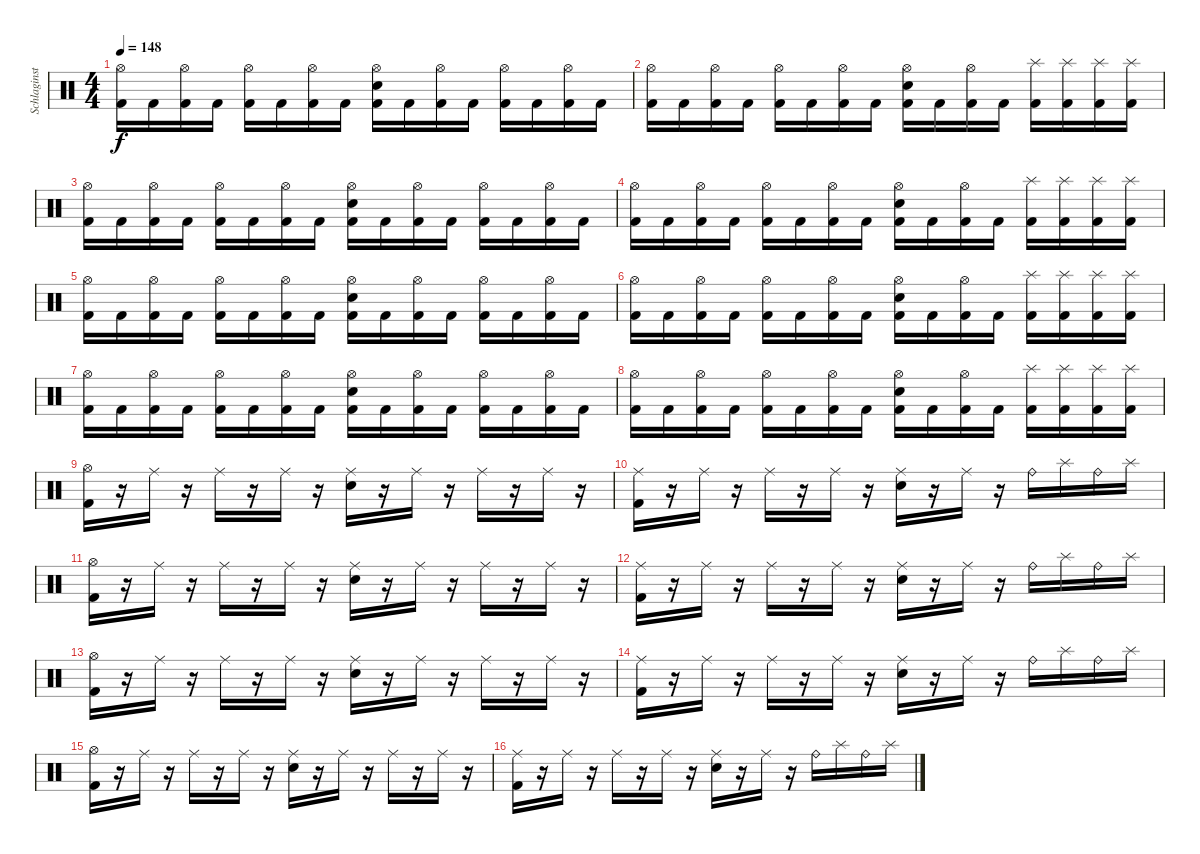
\track ("Schlaginstrumente - Auswahl" "Schlaginst") {instrument percussion}
\staff {score}
\articulation defaults
\ts (4 4)
\tempo 148
\clef neutral
\ks c
("Hi-Hat (open)" "Kick (hit) 2").16{dy f} "Kick (hit) 2".16 ("Hi-Hat (open)" "Kick (hit) 2").16 "Kick (hit) 2".16 ("Hi-Hat (open)" "Kick (hit) 2").16 "Kick (hit) 2".16 ("Hi-Hat (open)" "Kick (hit) 2").16 "Kick (hit) 2".16 ("Hi-Hat (open)" "Electric Snare (hit)" "Kick (hit) 2").16 "Kick (hit) 2".16 ("Hi-Hat (open)" "Kick (hit) 2").16 "Kick (hit) 2".16 ("Hi-Hat (open)" "Kick (hit) 2").16 "Kick (hit) 2".16 ("Hi-Hat (open)" "Kick (hit) 2").16 "Kick (hit) 2".16 |
("Hi-Hat (open)" "Kick (hit) 2").16 "Kick (hit) 2".16 ("Hi-Hat (open)" "Kick (hit) 2").16 "Kick (hit) 2".16 ("Hi-Hat (open)" "Kick (hit) 2").16 "Kick (hit) 2".16 ("Hi-Hat (open)" "Kick (hit) 2").16 "Kick (hit) 2".16 ("Hi-Hat (open)" "Electric Snare (hit)" "Kick (hit) 2").16 "Kick (hit) 2".16 ("Hi-Hat (open)" "Kick (hit) 2").16 "Kick (hit) 2".16 ("Splash (hit)" "Kick (hit) 2").16 ("Splash (hit)" "Kick (hit) 2").16 ("Splash (hit)" "Kick (hit) 2").16 ("Splash (hit)" "Kick (hit) 2").16 |
("Hi-Hat (open)" "Kick (hit) 2").16 "Kick (hit) 2".16 ("Hi-Hat (open)" "Kick (hit) 2").16 "Kick (hit) 2".16 ("Hi-Hat (open)" "Kick (hit) 2").16 "Kick (hit) 2".16 ("Hi-Hat (open)" "Kick (hit) 2").16 "Kick (hit) 2".16 ("Hi-Hat (open)" "Electric Snare (hit)" "Kick (hit) 2").16 "Kick (hit) 2".16 ("Hi-Hat (open)" "Kick (hit) 2").16 "Kick (hit) 2".16 ("Hi-Hat (open)" "Kick (hit) 2").16 "Kick (hit) 2".16 ("Hi-Hat (open)" "Kick (hit) 2").16 "Kick (hit) 2".16 |
("Hi-Hat (open)" "Kick (hit) 2").16 "Kick (hit) 2".16 ("Hi-Hat (open)" "Kick (hit) 2").16 "Kick (hit) 2".16 ("Hi-Hat (open)" "Kick (hit) 2").16 "Kick (hit) 2".16 ("Hi-Hat (open)" "Kick (hit) 2").16 "Kick (hit) 2".16 ("Hi-Hat (open)" "Electric Snare (hit)" "Kick (hit) 2").16 "Kick (hit) 2".16 ("Hi-Hat (open)" "Kick (hit) 2").16 "Kick (hit) 2".16 ("Splash (hit)" "Kick (hit) 2").16 ("Splash (hit)" "Kick (hit) 2").16 ("Splash (hit)" "Kick (hit) 2").16 ("Splash (hit)" "Kick (hit) 2").16 |
("Hi-Hat (open)" "Kick (hit) 2").16 "Kick (hit) 2".16 ("Hi-Hat (open)" "Kick (hit) 2").16 "Kick (hit) 2".16 ("Hi-Hat (open)" "Kick (hit) 2").16 "Kick (hit) 2".16 ("Hi-Hat (open)" "Kick (hit) 2").16 "Kick (hit) 2".16 ("Hi-Hat (open)" "Electric Snare (hit)" "Kick (hit) 2").16 "Kick (hit) 2".16 ("Hi-Hat (open)" "Kick (hit) 2").16 "Kick (hit) 2".16 ("Hi-Hat (open)" "Kick (hit) 2").16 "Kick (hit) 2".16 ("Hi-Hat (open)" "Kick (hit) 2").16 "Kick (hit) 2".16 |
("Hi-Hat (open)" "Kick (hit) 2").16 "Kick (hit) 2".16 ("Hi-Hat (open)" "Kick (hit) 2").16 "Kick (hit) 2".16 ("Hi-Hat (open)" "Kick (hit) 2").16 "Kick (hit) 2".16 ("Hi-Hat (open)" "Kick (hit) 2").16 "Kick (hit) 2".16 ("Hi-Hat (open)" "Electric Snare (hit)" "Kick (hit) 2").16 "Kick (hit) 2".16 ("Hi-Hat (open)" "Kick (hit) 2").16 "Kick (hit) 2".16 ("Splash (hit)" "Kick (hit) 2").16 ("Splash (hit)" "Kick (hit) 2").16 ("Splash (hit)" "Kick (hit) 2").16 ("Splash (hit)" "Kick (hit) 2").16 |
("Hi-Hat (open)" "Kick (hit) 2").16 "Kick (hit) 2".16 ("Hi-Hat (open)" "Kick (hit) 2").16 "Kick (hit) 2".16 ("Hi-Hat (open)" "Kick (hit) 2").16 "Kick (hit) 2".16 ("Hi-Hat (open)" "Kick (hit) 2").16 "Kick (hit) 2".16 ("Hi-Hat (open)" "Electric Snare (hit)" "Kick (hit) 2").16 "Kick (hit) 2".16 ("Hi-Hat (open)" "Kick (hit) 2").16 "Kick (hit) 2".16 ("Hi-Hat (open)" "Kick (hit) 2").16 "Kick (hit) 2".16 ("Hi-Hat (open)" "Kick (hit) 2").16 "Kick (hit) 2".16 |
("Hi-Hat (open)" "Kick (hit) 2").16 "Kick (hit) 2".16 ("Hi-Hat (open)" "Kick (hit) 2").16 "Kick (hit) 2".16 ("Hi-Hat (open)" "Kick (hit) 2").16 "Kick (hit) 2".16 ("Hi-Hat (open)" "Kick (hit) 2").16 "Kick (hit) 2".16 ("Hi-Hat (open)" "Electric Snare (hit)" "Kick (hit) 2").16 "Kick (hit) 2".16 ("Hi-Hat (open)" "Kick (hit) 2").16 "Kick (hit) 2".16 ("Splash (hit)" "Kick (hit) 2").16 ("Splash (hit)" "Kick (hit) 2").16 ("Splash (hit)" "Kick (hit) 2").16 ("Splash (hit)" "Kick (hit) 2").16 |
("Hi-Hat (open)" "Kick (hit) 2").16 r.16 "Ride (middle)".16 r.16 "Ride (middle)".16 r.16 "Ride (middle)".16 r.16 ("Ride (middle)" "Electric Snare (hit)").16 r.16 "Ride (middle)".16 r.16 "Ride (middle)".16 r.16 "Ride (middle)".16 r.16 |
("Ride (middle)" "Kick (hit) 2").16 r.16 "Ride (middle)".16 r.16 "Ride (middle)".16 r.16 "Ride (middle)".16 r.16 ("Ride (middle)" "Electric Snare (hit)").16 r.16 "Ride (middle)".16 r.16 "Ride (bell)".16 "Splash (hit)".16 "Ride (bell)".16 "Splash (hit)".16 |
("Hi-Hat (open)" "Kick (hit) 2").16 r.16 "Ride (middle)".16 r.16 "Ride (middle)".16 r.16 "Ride (middle)".16 r.16 ("Ride (middle)" "Electric Snare (hit)").16 r.16 "Ride (middle)".16 r.16 "Ride (middle)".16 r.16 "Ride (middle)".16 r.16 |
("Ride (middle)" "Kick (hit) 2").16 r.16 "Ride (middle)".16 r.16 "Ride (middle)".16 r.16 "Ride (middle)".16 r.16 ("Ride (middle)" "Electric Snare (hit)").16 r.16 "Ride (middle)".16 r.16 "Ride (bell)".16 "Splash (hit)".16 "Ride (bell)".16 "Splash (hit)".16 |
("Hi-Hat (open)" "Kick (hit) 2").16 r.16 "Ride (middle)".16 r.16 "Ride (middle)".16 r.16 "Ride (middle)".16 r.16 ("Ride (middle)" "Electric Snare (hit)").16 r.16 "Ride (middle)".16 r.16 "Ride (middle)".16 r.16 "Ride (middle)".16 r.16 |
("Ride (middle)" "Kick (hit) 2").16 r.16 "Ride (middle)".16 r.16 "Ride (middle)".16 r.16 "Ride (middle)".16 r.16 ("Ride (middle)" "Electric Snare (hit)").16 r.16 "Ride (middle)".16 r.16 "Ride (bell)".16 "Splash (hit)".16 "Ride (bell)".16 "Splash (hit)".16 |
("Hi-Hat (open)" "Kick (hit) 2").16 r.16 "Ride (middle)".16 r.16 "Ride (middle)".16 r.16 "Ride (middle)".16 r.16 ("Ride (middle)" "Electric Snare (hit)").16 r.16 "Ride (middle)".16 r.16 "Ride (middle)".16 r.16 "Ride (middle)".16 r.16 |
("Ride (middle)" "Kick (hit) 2").16 r.16 "Ride (middle)".16 r.16 "Ride (middle)".16 r.16 "Ride (middle)".16 r.16 ("Ride (middle)" "Electric Snare (hit)").16 r.16 "Ride (middle)".16 r.16 "Ride (bell)".16 "Splash (hit)".16 "Ride (bell)".16 "Splash (hit)".16
